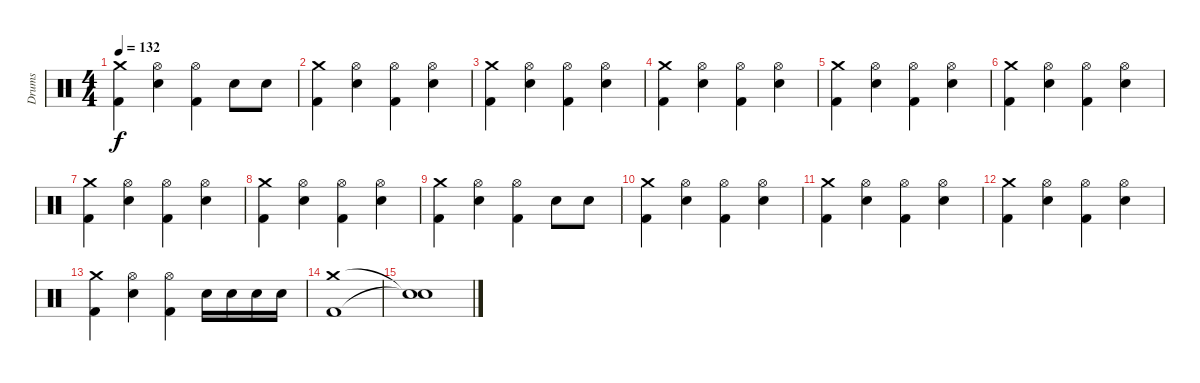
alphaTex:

\track ("Drums" "Drums") {instrument percussion}
\staff {score}
\articulation defaults
\ts (4 4)
\tempo 132
\clef neutral
\ks c
("Kick (hit) 2" "Crash medium (hit)").4{dy f} ("Electric Snare (hit)" "Hi-Hat (open)").4 ("Kick (hit) 2" "Hi-Hat (open)").4 "Electric Snare (hit)".8 "Electric Snare (hit)".8 |
("Kick (hit) 2" "Crash medium (hit)").4{volume 9} ("Electric Snare (hit)" "Hi-Hat (open)").4 ("Kick (hit) 2" "Hi-Hat (open)").4 ("Electric Snare (hit)" "Hi-Hat (open)").4 |
("Kick (hit) 2" "Crash medium (hit)").4 ("Electric Snare (hit)" "Hi-Hat (open)").4 ("Kick (hit) 2" "Hi-Hat (open)").4 ("Electric Snare (hit)" "Hi-Hat (open)").4 |
("Kick (hit) 2" "Crash medium (hit)").4 ("Electric Snare (hit)" "Hi-Hat (open)").4 ("Kick (hit) 2" "Hi-Hat (open)").4 ("Electric Snare (hit)" "Hi-Hat (open)").4 |
("Kick (hit) 2" "Crash medium (hit)").4 ("Electric Snare (hit)" "Hi-Hat (open)").4 ("Kick (hit) 2" "Hi-Hat (open)").4 ("Electric Snare (hit)" "Hi-Hat (open)").4 |
("Kick (hit) 2" "Crash medium (hit)").4{volume 9} ("Electric Snare (hit)" "Hi-Hat (open)").4 ("Kick (hit) 2" "Hi-Hat (open)").4 ("Electric Snare (hit)" "Hi-Hat (open)").4 |
("Kick (hit) 2" "Crash medium (hit)").4 ("Electric Snare (hit)" "Hi-Hat (open)").4 ("Kick (hit) 2" "Hi-Hat (open)").4 ("Electric Snare (hit)" "Hi-Hat (open)").4 |
("Kick (hit) 2" "Crash medium (hit)").4 ("Electric Snare (hit)" "Hi-Hat (open)").4 ("Kick (hit) 2" "Hi-Hat (open)").4 ("Electric Snare (hit)" "Hi-Hat (open)").4 |
("Kick (hit) 2" "Crash medium (hit)").4 ("Electric Snare (hit)" "Hi-Hat (open)").4 ("Kick (hit) 2" "Hi-Hat (open)").4 "Electric Snare (hit)".8 "Electric Snare (hit)".8 |
("Kick (hit) 2" "Crash medium (hit)").4{volume 9} ("Electric Snare (hit)" "Hi-Hat (open)").4 ("Kick (hit) 2" "Hi-Hat (open)").4 ("Electric Snare (hit)" "Hi-Hat (open)").4 |
("Kick (hit) 2" "Crash medium (hit)").4 ("Electric Snare (hit)" "Hi-Hat (open)").4 ("Kick (hit) 2" "Hi-Hat (open)").4 ("Electric Snare (hit)" "Hi-Hat (open)").4 |
("Kick (hit) 2" "Crash medium (hit)").4 ("Electric Snare (hit)" "Hi-Hat (open)").4 ("Kick (hit) 2" "Hi-Hat (open)").4 ("Electric Snare (hit)" "Hi-Hat (open)").4 |
("Kick (hit) 2" "Crash medium (hit)").4 ("Electric Snare (hit)" "Hi-Hat (open)").4 ("Kick (hit) 2" "Hi-Hat (open)").4 "Snare (hit) 2".16 "Snare (hit) 2".16 "Snare (hit) 2".16 "Snare (hit) 2".16 |
("Kick (hit) 2" "Crash medium (hit)").1 |
("Snare (hit)"{t} "Snare (hit)"{t}).1
